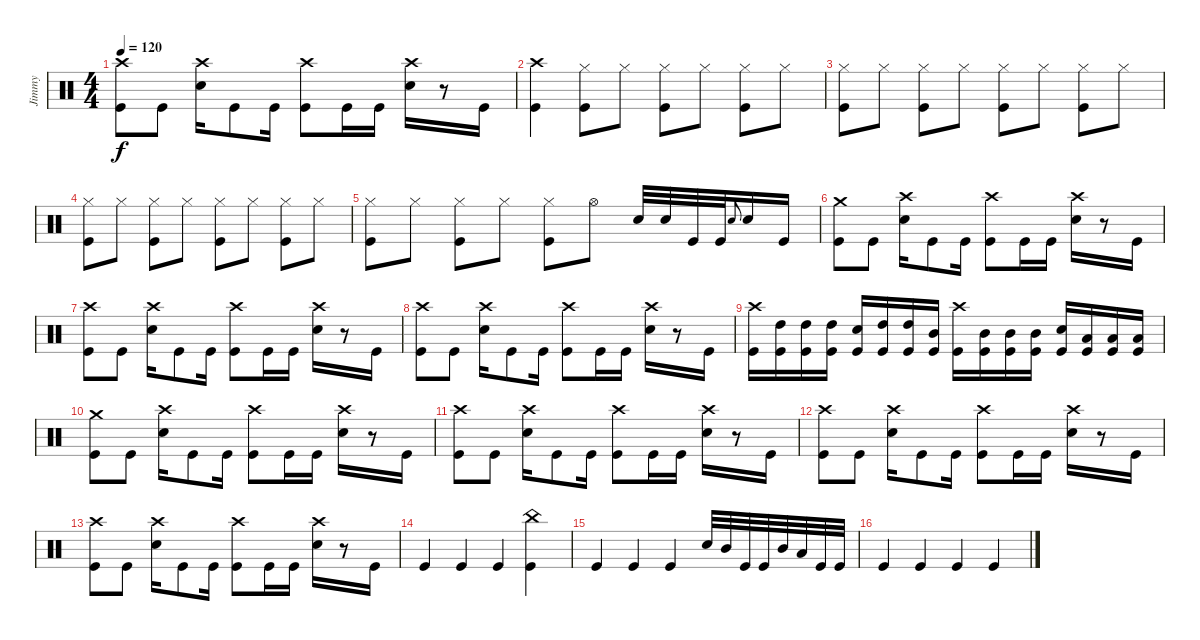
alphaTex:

\track ("Jimmy" "Jimmy") {instrument percussion}
\staff {score}
\articulation defaults
\ts (4 4)
\tempo 120
\clef neutral
\ks c
("Crash high (hit)" "Kick (hit)").8{dy f} "Kick (hit)".8 ("Crash high (hit)" "Snare (hit) 2").16 "Kick (hit)".8 "Kick (hit)".16 ("Crash high (hit)" "Kick (hit)").8 "Kick (hit)".16 "Kick (hit)".16 ("Snare (hit) 2" "Crash high (hit)").16 r.8 "Kick (hit)".16 |
("Crash high (hit)" "Kick (hit)").4 ("Kick (hit)" "Hi-Hat (closed)").8 "Hi-Hat (closed)".8 ("Kick (hit)" "Hi-Hat (closed)").8 "Hi-Hat (closed)".8 ("Kick (hit)" "Hi-Hat (closed)").8 "Hi-Hat (closed)".8 |
("Kick (hit)" "Hi-Hat (closed)").8 "Hi-Hat (closed)".8 ("Kick (hit)" "Hi-Hat (closed)").8 "Hi-Hat (closed)".8 ("Kick (hit)" "Hi-Hat (closed)").8 "Hi-Hat (closed)".8 ("Kick (hit)" "Hi-Hat (closed)").8 "Hi-Hat (closed)".8 |
("Kick (hit)" "Hi-Hat (closed)").8 "Hi-Hat (closed)".8 ("Kick (hit)" "Hi-Hat (closed)").8 "Hi-Hat (closed)".8 ("Kick (hit)" "Hi-Hat (closed)").8 "Hi-Hat (closed)".8 ("Kick (hit)" "Hi-Hat (closed)").8 "Hi-Hat (closed)".8 |
("Kick (hit)" "Hi-Hat (closed)").8 "Hi-Hat (closed)".8 ("Kick (hit)" "Hi-Hat (closed)").8 "Hi-Hat (closed)".8 ("Kick (hit)" "Hi-Hat (closed)").8 "Hi-Hat (open)".8 "Snare (hit) 2".32 "Snare (hit) 2".32 "Kick (hit)".32 "Kick (hit)".32 "Snare (hit) 2".8{gr onbeat} "Snare (hit) 2".16 "Kick (hit)".16 |
("Crash medium (hit)" "Kick (hit)").8 "Kick (hit)".8 ("Crash high (hit)" "Snare (hit) 2").16 "Kick (hit)".8 "Kick (hit)".16 ("Crash high (hit)" "Kick (hit)").8 "Kick (hit)".16 "Kick (hit)".16 ("Snare (hit) 2" "Crash high (hit)").16 r.8 "Kick (hit)".16 |
("Kick (hit)" "Crash high (hit)").8 "Kick (hit)".8 ("Crash high (hit)" "Snare (hit) 2").16 "Kick (hit)".8 "Kick (hit)".16 ("Crash high (hit)" "Kick (hit)").8 "Kick (hit)".16 "Kick (hit)".16 ("Snare (hit) 2" "Crash high (hit)").16 r.8 "Kick (hit)".16 |
("Kick (hit)" "Crash high (hit)").8 "Kick (hit)".8 ("Crash high (hit)" "Snare (hit) 2").16 "Kick (hit)".8 "Kick (hit)".16 ("Crash high (hit)" "Kick (hit)").8 "Kick (hit)".16 "Kick (hit)".16 ("Snare (hit) 2" "Crash high (hit)").16 r.8 "Kick (hit)".16 |
("Crash high (hit)" "Kick (hit)").16 ("High Tom (hit)" "Kick (hit)").16 ("High Tom (hit)" "Kick (hit)").16 ("High Tom (hit)" "Kick (hit)").16 ("Snare (hit) 2" "Kick (hit)").16 ("High Tom (hit)" "Kick (hit)").16 ("High Tom (hit)" "Kick (hit)").16 ("Mid Tom (hit)" "Kick (hit)").16 ("Crash high (hit)" "Kick (hit)").16 ("Mid Tom (hit)" "Kick (hit)").16 ("Mid Tom (hit)" "Kick (hit)").16 ("Mid Tom (hit)" "Kick (hit)").16 ("Snare (hit) 2" "Kick (hit)").16 ("Kick (hit)" "Low Tom (hit)").16 ("Kick (hit)" "Low Tom (hit)").16 ("Kick (hit)" "Low Tom (hit)").16 |
("Kick (hit)" "Crash medium (hit)").8 "Kick (hit)".8 ("Crash high (hit)" "Snare (hit) 2").16 "Kick (hit)".8 "Kick (hit)".16 ("Crash high (hit)" "Kick (hit)").8 "Kick (hit)".16 "Kick (hit)".16 ("Snare (hit) 2" "Crash high (hit)").16 r.8 "Kick (hit)".16 |
("Kick (hit)" "Crash high (hit)").8 "Kick (hit)".8 ("Crash high (hit)" "Snare (hit) 2").16 "Kick (hit)".8 "Kick (hit)".16 ("Crash high (hit)" "Kick (hit)").8 "Kick (hit)".16 "Kick (hit)".16 ("Snare (hit) 2" "Crash high (hit)").16 r.8 "Kick (hit)".16 |
("Kick (hit)" "Crash high (hit)").8 "Kick (hit)".8 ("Crash high (hit)" "Snare (hit) 2").16 "Kick (hit)".8 "Kick (hit)".16 ("Crash high (hit)" "Kick (hit)").8 "Kick (hit)".16 "Kick (hit)".16 ("Snare (hit) 2" "Crash high (hit)").16 r.8 "Kick (hit)".16 |
("Kick (hit)" "Crash high (hit)").8 "Kick (hit)".8 ("Crash high (hit)" "Snare (hit) 2").16 "Kick (hit)".8 "Kick (hit)".16 ("Crash high (hit)" "Kick (hit)").8 "Kick (hit)".16 "Kick (hit)".16 ("Snare (hit) 2" "Crash high (hit)").16 r.8 "Kick (hit)".16 |
"Kick (hit)".4 "Kick (hit)".4 "Kick (hit)".4 ("Kick (hit)" "China (hit)").4 |
"Kick (hit)".4 "Kick (hit)".4 "Kick (hit)".4 "Snare (hit) 2".32 "Mid Tom (hit)".32 "Kick (hit)".32 "Kick (hit)".32 "Mid Tom (hit)".32 "Low Tom (hit)".32 "Kick (hit)".32 "Kick (hit)".32 |
"Kick (hit)".4 "Kick (hit)".4 "Kick (hit)".4 "Kick (hit)".4
